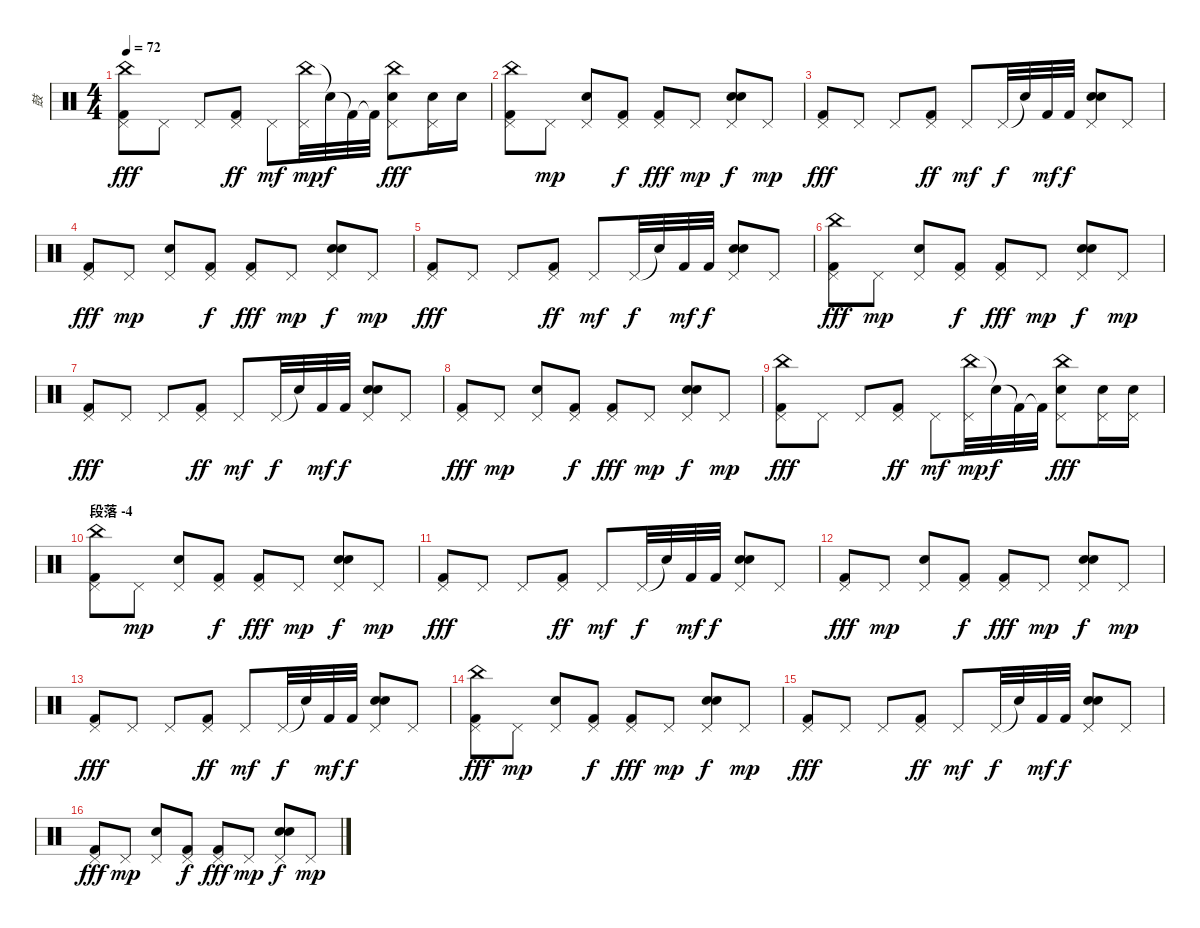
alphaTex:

\track ("鼓" "鼓") {instrument percussion}
\staff {score}
\articulation defaults
\ts (4 4)
\tempo 72
\clef neutral
\ks c
("China (hit)" "Kick (hit) 2" "Pedal Hi-Hat (hit)").8{dy fff} "Pedal Hi-Hat (hit)".8 "Pedal Hi-Hat (hit)".8 ("Kick (hit) 2" "Pedal Hi-Hat (hit)").8{dy ff} "Pedal Hi-Hat (hit)".8{dy mf} ("China (hit)" "Pedal Hi-Hat (hit)").32{dy mp} "Snare (hit)"{t}.32{dy f} "Kick (hit) 2"{t}.32 "Kick (hit) 2"{t}.32 ("China (hit)" "Electric Snare (hit)" "Pedal Hi-Hat (hit)").8{dy fff} ("Electric Snare (hit)" "Pedal Hi-Hat (hit)").16 "Electric Snare (hit)".16 |
("China (hit)" "Kick (hit) 2" "Pedal Hi-Hat (hit)").8 "Pedal Hi-Hat (hit)".8{dy mp} ("Electric Snare (hit)" "Pedal Hi-Hat (hit)").8 ("Kick (hit) 2" "Pedal Hi-Hat (hit)").8{dy f} ("Kick (hit) 2" "Pedal Hi-Hat (hit)").8{dy fff} "Pedal Hi-Hat (hit)".8{dy mp} ("Hand Clap (hit)" "Electric Snare (hit)" "Pedal Hi-Hat (hit)").8{dy f} "Pedal Hi-Hat (hit)".8{dy mp} |
("Kick (hit) 2" "Pedal Hi-Hat (hit)").8{dy fff} "Pedal Hi-Hat (hit)".8 "Pedal Hi-Hat (hit)".8 ("Kick (hit) 2" "Pedal Hi-Hat (hit)").8{dy ff} "Pedal Hi-Hat (hit)".8{dy mf} "Pedal Hi-Hat (hit)".32{dy f} "Snare (hit)"{t}.32 "Kick (hit) 2".32{dy mf} "Kick (hit) 2".32{dy f} ("Hand Clap (hit)" "Electric Snare (hit)" "Pedal Hi-Hat (hit)").8 "Pedal Hi-Hat (hit)".8 |
("Kick (hit) 2" "Pedal Hi-Hat (hit)").8{dy fff} "Pedal Hi-Hat (hit)".8{dy mp} ("Electric Snare (hit)" "Pedal Hi-Hat (hit)").8 ("Kick (hit) 2" "Pedal Hi-Hat (hit)").8{dy f} ("Kick (hit) 2" "Pedal Hi-Hat (hit)").8{dy fff} "Pedal Hi-Hat (hit)".8{dy mp} ("Hand Clap (hit)" "Electric Snare (hit)" "Pedal Hi-Hat (hit)").8{dy f} "Pedal Hi-Hat (hit)".8{dy mp} |
("Kick (hit) 2" "Pedal Hi-Hat (hit)").8{dy fff} "Pedal Hi-Hat (hit)".8 "Pedal Hi-Hat (hit)".8 ("Kick (hit) 2" "Pedal Hi-Hat (hit)").8{dy ff} "Pedal Hi-Hat (hit)".8{dy mf} "Pedal Hi-Hat (hit)".32{dy f} "Snare (hit)"{t}.32 "Kick (hit) 2".32{dy mf} "Kick (hit) 2".32{dy f} ("Hand Clap (hit)" "Electric Snare (hit)" "Pedal Hi-Hat (hit)").8 "Pedal Hi-Hat (hit)".8 |
("China (hit)" "Kick (hit) 2" "Pedal Hi-Hat (hit)").8{dy fff} "Pedal Hi-Hat (hit)".8{dy mp} ("Electric Snare (hit)" "Pedal Hi-Hat (hit)").8 ("Kick (hit) 2" "Pedal Hi-Hat (hit)").8{dy f} ("Kick (hit) 2" "Pedal Hi-Hat (hit)").8{dy fff} "Pedal Hi-Hat (hit)".8{dy mp} ("Hand Clap (hit)" "Electric Snare (hit)" "Pedal Hi-Hat (hit)").8{dy f} "Pedal Hi-Hat (hit)".8{dy mp} |
("Kick (hit) 2" "Pedal Hi-Hat (hit)").8{dy fff} "Pedal Hi-Hat (hit)".8 "Pedal Hi-Hat (hit)".8 ("Kick (hit) 2" "Pedal Hi-Hat (hit)").8{dy ff} "Pedal Hi-Hat (hit)".8{dy mf} "Pedal Hi-Hat (hit)".32{dy f} "Snare (hit)"{t}.32 "Kick (hit) 2".32{dy mf} "Kick (hit) 2".32{dy f} ("Hand Clap (hit)" "Electric Snare (hit)" "Pedal Hi-Hat (hit)").8 "Pedal Hi-Hat (hit)".8 |
("Kick (hit) 2" "Pedal Hi-Hat (hit)").8{dy fff} "Pedal Hi-Hat (hit)".8{dy mp} ("Electric Snare (hit)" "Pedal Hi-Hat (hit)").8 ("Kick (hit) 2" "Pedal Hi-Hat (hit)").8{dy f} ("Kick (hit) 2" "Pedal Hi-Hat (hit)").8{dy fff} "Pedal Hi-Hat (hit)".8{dy mp} ("Hand Clap (hit)" "Electric Snare (hit)" "Pedal Hi-Hat (hit)").8{dy f} "Pedal Hi-Hat (hit)".8{dy mp} |
("China (hit)" "Kick (hit) 2" "Pedal Hi-Hat (hit)").8{dy fff} "Pedal Hi-Hat (hit)".8 "Pedal Hi-Hat (hit)".8 ("Kick (hit) 2" "Pedal Hi-Hat (hit)").8{dy ff} "Pedal Hi-Hat (hit)".8{dy mf} ("China (hit)" "Pedal Hi-Hat (hit)").32{dy mp} "Snare (hit)"{t}.32{dy f} "Kick (hit) 2"{t}.32 "Kick (hit) 2"{t}.32 ("China (hit)" "Electric Snare (hit)" "Pedal Hi-Hat (hit)").8{dy fff} ("Electric Snare (hit)" "Pedal Hi-Hat (hit)").16 ("Electric Snare (hit)" "Pedal Hi-Hat (hit)").16 |
\section ("" "段落 -4")
("China (hit)" "Kick (hit) 2" "Pedal Hi-Hat (hit)").8 "Pedal Hi-Hat (hit)".8{dy mp} ("Electric Snare (hit)" "Pedal Hi-Hat (hit)").8 ("Kick (hit) 2" "Pedal Hi-Hat (hit)").8{dy f} ("Kick (hit) 2" "Pedal Hi-Hat (hit)").8{dy fff} "Pedal Hi-Hat (hit)".8{dy mp} ("Hand Clap (hit)" "Electric Snare (hit)" "Pedal Hi-Hat (hit)").8{dy f} "Pedal Hi-Hat (hit)".8{dy mp} |
("Kick (hit) 2" "Pedal Hi-Hat (hit)").8{dy fff} "Pedal Hi-Hat (hit)".8 "Pedal Hi-Hat (hit)".8 ("Kick (hit) 2" "Pedal Hi-Hat (hit)").8{dy ff} "Pedal Hi-Hat (hit)".8{dy mf} "Pedal Hi-Hat (hit)".32{dy f} "Snare (hit)"{t}.32 "Kick (hit) 2".32{dy mf} "Kick (hit) 2".32{dy f} ("Hand Clap (hit)" "Electric Snare (hit)" "Pedal Hi-Hat (hit)").8 "Pedal Hi-Hat (hit)".8 |
("Kick (hit) 2" "Pedal Hi-Hat (hit)").8{dy fff} "Pedal Hi-Hat (hit)".8{dy mp} ("Electric Snare (hit)" "Pedal Hi-Hat (hit)").8 ("Kick (hit) 2" "Pedal Hi-Hat (hit)").8{dy f} ("Kick (hit) 2" "Pedal Hi-Hat (hit)").8{dy fff} "Pedal Hi-Hat (hit)".8{dy mp} ("Hand Clap (hit)" "Electric Snare (hit)" "Pedal Hi-Hat (hit)").8{dy f} "Pedal Hi-Hat (hit)".8{dy mp} |
("Kick (hit) 2" "Pedal Hi-Hat (hit)").8{dy fff} "Pedal Hi-Hat (hit)".8 "Pedal Hi-Hat (hit)".8 ("Kick (hit) 2" "Pedal Hi-Hat (hit)").8{dy ff} "Pedal Hi-Hat (hit)".8{dy mf} "Pedal Hi-Hat (hit)".32{dy f} "Snare (hit)"{t}.32 "Kick (hit) 2".32{dy mf} "Kick (hit) 2".32{dy f} ("Hand Clap (hit)" "Electric Snare (hit)" "Pedal Hi-Hat (hit)").8 "Pedal Hi-Hat (hit)".8 |
("China (hit)" "Kick (hit) 2" "Pedal Hi-Hat (hit)").8{dy fff} "Pedal Hi-Hat (hit)".8{dy mp} ("Electric Snare (hit)" "Pedal Hi-Hat (hit)").8 ("Kick (hit) 2" "Pedal Hi-Hat (hit)").8{dy f} ("Kick (hit) 2" "Pedal Hi-Hat (hit)").8{dy fff} "Pedal Hi-Hat (hit)".8{dy mp} ("Hand Clap (hit)" "Electric Snare (hit)" "Pedal Hi-Hat (hit)").8{dy f} "Pedal Hi-Hat (hit)".8{dy mp} |
("Kick (hit) 2" "Pedal Hi-Hat (hit)").8{dy fff} "Pedal Hi-Hat (hit)".8 "Pedal Hi-Hat (hit)".8 ("Kick (hit) 2" "Pedal Hi-Hat (hit)").8{dy ff} "Pedal Hi-Hat (hit)".8{dy mf} "Pedal Hi-Hat (hit)".32{dy f} "Snare (hit)"{t}.32 "Kick (hit) 2".32{dy mf} "Kick (hit) 2".32{dy f} ("Hand Clap (hit)" "Electric Snare (hit)" "Pedal Hi-Hat (hit)").8 "Pedal Hi-Hat (hit)".8 |
("Kick (hit) 2" "Pedal Hi-Hat (hit)").8{dy fff} "Pedal Hi-Hat (hit)".8{dy mp} ("Electric Snare (hit)" "Pedal Hi-Hat (hit)").8 ("Kick (hit) 2" "Pedal Hi-Hat (hit)").8{dy f} ("Kick (hit) 2" "Pedal Hi-Hat (hit)").8{dy fff} "Pedal Hi-Hat (hit)".8{dy mp} ("Hand Clap (hit)" "Electric Snare (hit)" "Pedal Hi-Hat (hit)").8{dy f} "Pedal Hi-Hat (hit)".8{dy mp}
